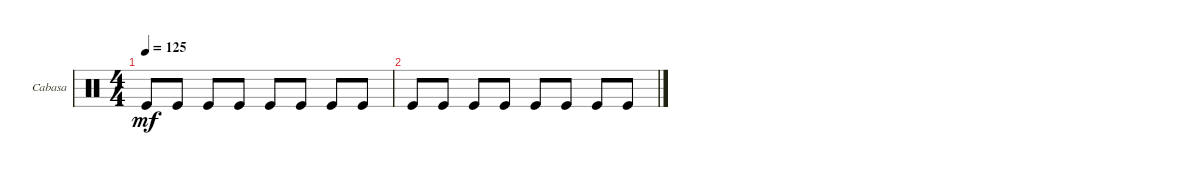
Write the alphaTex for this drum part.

\defaultSystemsLayout 4
\bracketExtendMode groupsimilarinstruments
\firstSystemTrackNameOrientation horizontal
\otherSystemsTrackNameOrientation horizontal
\track ("Cabasa" "Cabasa") {instrument percussion}
\staff {score}
\articulation defaults
\ts (4 4)
\tempo 125
\clef neutral
\scale
0.333333
\ks c "Kick (hit)".8{dy mf} "Kick (hit)".8 "Kick (hit)".8 "Kick (hit)".8 "Kick (hit)".8 "Kick (hit)".8 "Kick (hit)".8 "Kick (hit)".8
|
\scale
0.333333 "Kick (hit)".8 "Kick (hit)".8 "Kick (hit)".8 "Kick (hit)".8 "Kick (hit)".8 "Kick (hit)".8 "Kick (hit)".8 "Kick (hit)".8 |
\scale
0.333333 |
\scale
0.333333 |
\scale
0.333333 |
\scale
0.333333 |
\scale
0.333333 |
\scale
0.333333
